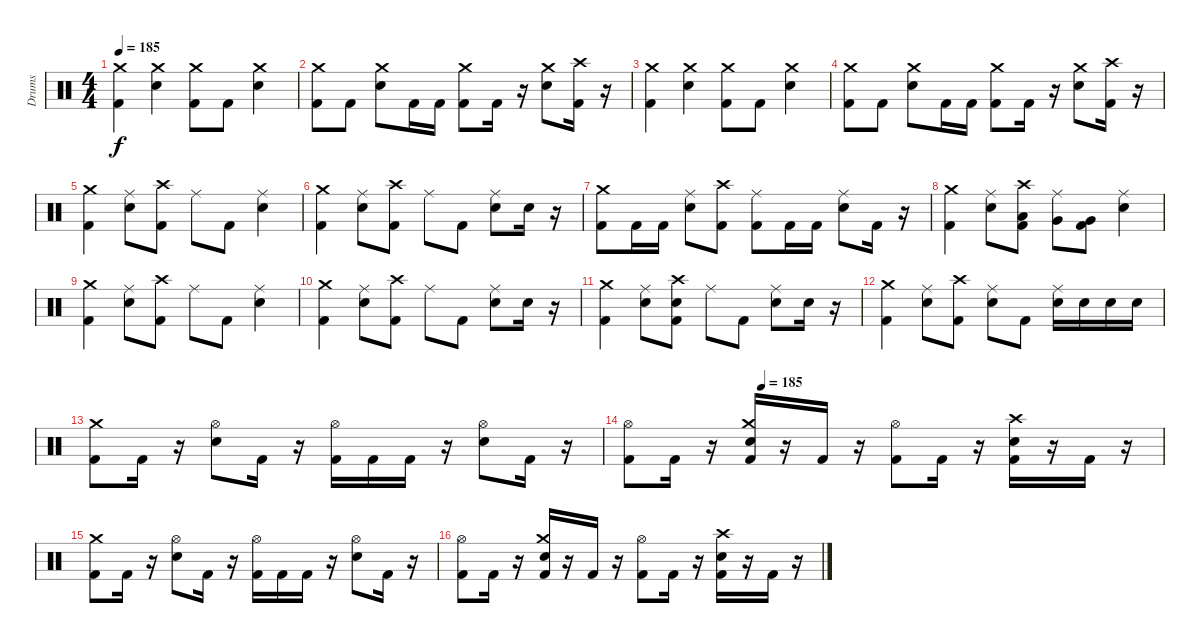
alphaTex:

\track ("Drums" "Drums") {instrument percussion}
\staff {score}
\articulation defaults
\ts (4 4)
\tempo 185
\clef neutral
\ks c
("Kick (hit) 2" "Crash medium (hit)").4{dy f} ("Electric Snare (hit)" "Crash medium (hit)").4 ("Kick (hit) 2" "Crash medium (hit)").8 "Kick (hit) 2".8 ("Electric Snare (hit)" "Crash medium (hit)").4 |
("Kick (hit) 2" "Crash medium (hit)").8 "Kick (hit) 2".8 ("Electric Snare (hit)" "Crash medium (hit)").8 "Kick (hit) 2".16 "Kick (hit) 2".16 ("Kick (hit) 2" "Crash medium (hit)").8 "Kick (hit) 2".16 r.16 ("Electric Snare (hit)" "Crash medium (hit)").8 ("Crash high (hit)" "Kick (hit) 2").16 r.16 |
("Kick (hit) 2" "Crash medium (hit)").4 ("Electric Snare (hit)" "Crash medium (hit)").4 ("Kick (hit) 2" "Crash medium (hit)").8 "Kick (hit) 2".8 ("Electric Snare (hit)" "Crash medium (hit)").4 |
("Kick (hit) 2" "Crash medium (hit)").8 "Kick (hit) 2".8 ("Electric Snare (hit)" "Crash medium (hit)").8 "Kick (hit) 2".16 "Kick (hit) 2".16 ("Kick (hit) 2" "Crash medium (hit)").8 "Kick (hit) 2".16 r.16 ("Electric Snare (hit)" "Crash medium (hit)").8 ("Crash high (hit)" "Kick (hit) 2").16 r.16 |
("Kick (hit) 2" "Crash medium (hit)").4 ("Electric Snare (hit)" "Ride (middle)").8 ("Kick (hit) 2" "Crash high (hit)").8 "Ride (middle)".8 "Kick (hit) 2".8 ("Electric Snare (hit)" "Ride (middle)").4 |
("Kick (hit) 2" "Crash medium (hit)").4 ("Electric Snare (hit)" "Ride (middle)").8 ("Kick (hit) 2" "Crash high (hit)").8 "Ride (middle)".8 "Kick (hit) 2".8 ("Electric Snare (hit)" "Ride (middle)").8 "Electric Snare (hit)".16 r.16 |
("Kick (hit) 2" "Crash medium (hit)").8 "Kick (hit) 2".16 "Kick (hit) 2".16 ("Electric Snare (hit)" "Ride (middle)").8 ("Kick (hit) 2" "Crash high (hit)").8 ("Kick (hit) 2" "Ride (middle)").8 "Kick (hit) 2".16 "Kick (hit) 2".16 ("Electric Snare (hit)" "Ride (middle)").8 "Kick (hit) 2".16 r.16 |
("Kick (hit) 2" "Crash medium (hit)").4 ("Electric Snare (hit)" "Ride (middle)").8 ("Low Tom (hit)" "Kick (hit) 2" "Crash high (hit)").8 ("Very Low Tom (hit)" "Ride (middle)").8 ("Very Low Tom (hit)" "Kick (hit) 2").8 ("Electric Snare (hit)" "Ride (middle)").4 |
("Kick (hit) 2" "Crash medium (hit)").4 ("Electric Snare (hit)" "Ride (middle)").8 ("Kick (hit) 2" "Crash high (hit)").8 "Ride (middle)".8 "Kick (hit) 2".8 ("Electric Snare (hit)" "Ride (middle)").4 |
("Kick (hit) 2" "Crash medium (hit)").4 ("Electric Snare (hit)" "Ride (middle)").8 ("Kick (hit) 2" "Crash high (hit)").8 "Ride (middle)".8 "Kick (hit) 2".8 ("Electric Snare (hit)" "Ride (middle)").8 "Electric Snare (hit)".16 r.16 |
("Kick (hit) 2" "Crash medium (hit)").4 ("Electric Snare (hit)" "Ride (middle)").8 ("Electric Snare (hit)" "Kick (hit) 2" "Crash high (hit)").8 "Ride (middle)".8 "Kick (hit) 2".8 ("Electric Snare (hit)" "Ride (middle)").8 "Electric Snare (hit)".16 r.16 |
("Kick (hit) 2" "Crash medium (hit)").4 ("Electric Snare (hit)" "Ride (middle)").8 ("Kick (hit) 2" "Crash high (hit)").8 ("Electric Snare (hit)" "Ride (middle)").8 "Kick (hit) 2".8 ("Electric Snare (hit)" "Ride (middle)").16 "Electric Snare (hit)".16 "Electric Snare (hit)".16 "Electric Snare (hit)".16 |
("Kick (hit) 2" "Crash medium (hit)").8 "Kick (hit) 2".16 r.16 ("Electric Snare (hit)" "Hi-Hat (open)").8 "Kick (hit) 2".16 r.16 ("Kick (hit) 2" "Hi-Hat (open)").16 "Kick (hit) 2".16 "Kick (hit) 2".16 r.16 ("Electric Snare (hit)" "Hi-Hat (open)").8 "Kick (hit) 2".16 r.16 |
\tempo (185 0.25)
("Kick (hit) 2" "Hi-Hat (open)").8 "Kick (hit) 2".16 r.16 ("Crash medium (hit)" "Electric Snare (hit)" "Kick (hit) 2").16 r.16 "Kick (hit) 2".16 r.16 ("Kick (hit) 2" "Hi-Hat (open)").8 "Kick (hit) 2".16 r.16 ("Crash high (hit)" "Electric Snare (hit)" "Kick (hit) 2").16 r.16 "Kick (hit) 2".16 r.16 |
("Kick (hit) 2" "Crash medium (hit)").8 "Kick (hit) 2".16 r.16 ("Electric Snare (hit)" "Hi-Hat (open)").8 "Kick (hit) 2".16 r.16 ("Kick (hit) 2" "Hi-Hat (open)").16 "Kick (hit) 2".16 "Kick (hit) 2".16 r.16 ("Electric Snare (hit)" "Hi-Hat (open)").8 "Kick (hit) 2".16 r.16 |
("Kick (hit) 2" "Hi-Hat (open)").8 "Kick (hit) 2".16 r.16 ("Crash medium (hit)" "Electric Snare (hit)" "Kick (hit) 2").16 r.16 "Kick (hit) 2".16 r.16 ("Kick (hit) 2" "Hi-Hat (open)").8 "Kick (hit) 2".16 r.16 ("Crash high (hit)" "Electric Snare (hit)" "Kick (hit) 2").16 r.16 "Kick (hit) 2".16 r.16
